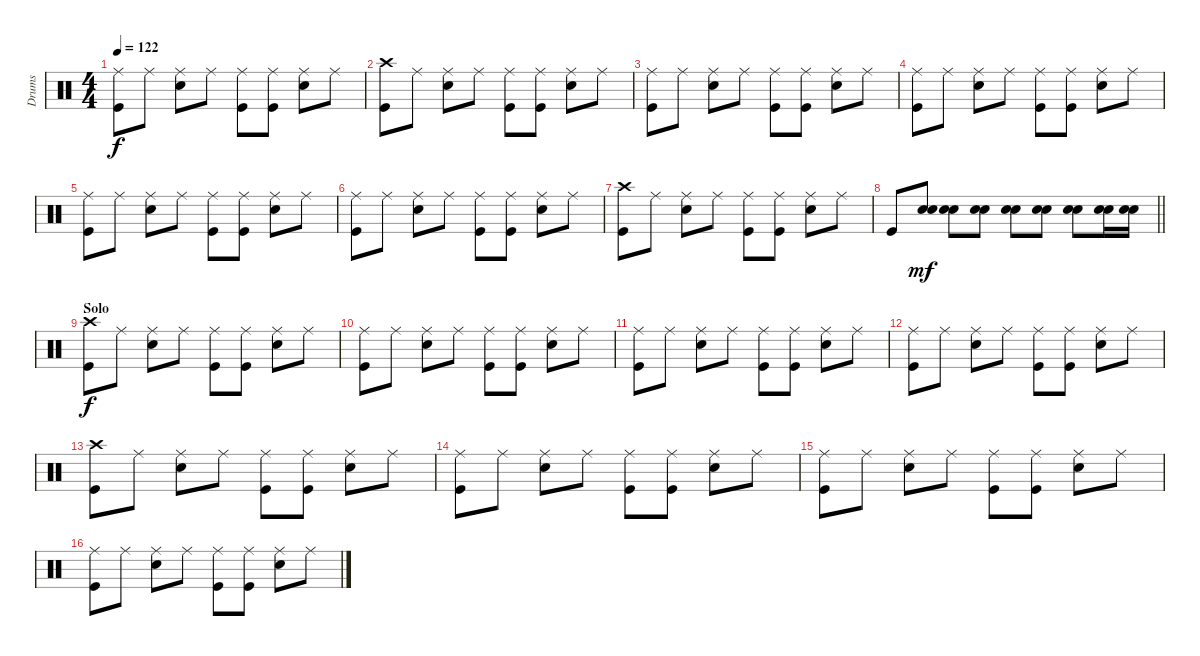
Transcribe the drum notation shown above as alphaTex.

\track ("Drums" "Drums") {instrument percussion}
\staff {score}
\articulation defaults
\ts (4 4)
\tempo 122
\clef neutral
\ks c
("Ride (middle)" "Kick (hit)").8{dy f} "Ride (middle)".8 ("Ride (middle)" "Electric Snare (hit)").8 "Ride (middle)".8 ("Ride (middle)" "Kick (hit)").8 ("Ride (middle)" "Kick (hit)").8 ("Ride (middle)" "Electric Snare (hit)").8 "Ride (middle)".8 |
("Crash high (hit)" "Kick (hit)").8 "Ride (middle)".8 ("Ride (middle)" "Electric Snare (hit)").8 "Ride (middle)".8 ("Ride (middle)" "Kick (hit)").8 ("Ride (middle)" "Kick (hit)").8 ("Ride (middle)" "Electric Snare (hit)").8 "Ride (middle)".8 |
("Ride (middle)" "Kick (hit)").8 "Ride (middle)".8 ("Ride (middle)" "Electric Snare (hit)").8 "Ride (middle)".8 ("Ride (middle)" "Kick (hit)").8 ("Ride (middle)" "Kick (hit)").8 ("Ride (middle)" "Electric Snare (hit)").8 "Ride (middle)".8 |
("Ride (middle)" "Kick (hit)").8 "Ride (middle)".8 ("Ride (middle)" "Electric Snare (hit)").8 "Ride (middle)".8 ("Ride (middle)" "Kick (hit)").8 ("Ride (middle)" "Kick (hit)").8 ("Ride (middle)" "Electric Snare (hit)").8 "Ride (middle)".8 |
("Ride (middle)" "Kick (hit)").8 "Ride (middle)".8 ("Ride (middle)" "Electric Snare (hit)").8 "Ride (middle)".8 ("Ride (middle)" "Kick (hit)").8 ("Ride (middle)" "Kick (hit)").8 ("Ride (middle)" "Electric Snare (hit)").8 "Ride (middle)".8 |
("Ride (middle)" "Kick (hit)").8 "Ride (middle)".8 ("Ride (middle)" "Electric Snare (hit)").8 "Ride (middle)".8 ("Ride (middle)" "Kick (hit)").8 ("Ride (middle)" "Kick (hit)").8 ("Ride (middle)" "Electric Snare (hit)").8 "Ride (middle)".8 |
("Crash high (hit)" "Kick (hit)").8 "Ride (middle)".8 ("Ride (middle)" "Electric Snare (hit)").8 "Ride (middle)".8 ("Ride (middle)" "Kick (hit)").8 ("Ride (middle)" "Kick (hit)").8 ("Ride (middle)" "Electric Snare (hit)").8 "Ride (middle)".8 |
\barLineRight lightlight "Kick (hit)".8
("Electric Snare (hit)" "Snare (hit) 2").8{dy mf} ("Electric Snare (hit)" "Snare (hit) 2").8 ("Electric Snare (hit)" "Snare (hit) 2").8 ("Electric Snare (hit)" "Snare (hit) 2").8 ("Electric Snare (hit)" "Snare (hit) 2").8 ("Electric Snare (hit)" "Snare (hit) 2").8 ("Electric Snare (hit)" "Snare (hit) 2").16 ("Electric Snare (hit)" "Snare (hit) 2").16 |
\section ("" "Solo")
("Crash high (hit)" "Kick (hit)").8{dy f} "Ride (middle)".8 ("Ride (middle)" "Electric Snare (hit)").8 "Ride (middle)".8 ("Ride (middle)" "Kick (hit)").8 ("Ride (middle)" "Kick (hit)").8 ("Ride (middle)" "Electric Snare (hit)").8 "Ride (middle)".8 |
("Ride (middle)" "Kick (hit)").8 "Ride (middle)".8 ("Ride (middle)" "Electric Snare (hit)").8 "Ride (middle)".8 ("Ride (middle)" "Kick (hit)").8 ("Ride (middle)" "Kick (hit)").8 ("Ride (middle)" "Electric Snare (hit)").8 "Ride (middle)".8 |
("Ride (middle)" "Kick (hit)").8 "Ride (middle)".8 ("Ride (middle)" "Electric Snare (hit)").8 "Ride (middle)".8 ("Ride (middle)" "Kick (hit)").8 ("Ride (middle)" "Kick (hit)").8 ("Ride (middle)" "Electric Snare (hit)").8 "Ride (middle)".8 |
("Ride (middle)" "Kick (hit)").8 "Ride (middle)".8 ("Ride (middle)" "Electric Snare (hit)").8 "Ride (middle)".8 ("Ride (middle)" "Kick (hit)").8 ("Ride (middle)" "Kick (hit)").8 ("Ride (middle)" "Electric Snare (hit)").8 "Ride (middle)".8 |
("Crash high (hit)" "Kick (hit)").8 "Ride (middle)".8 ("Ride (middle)" "Electric Snare (hit)").8 "Ride (middle)".8 ("Ride (middle)" "Kick (hit)").8 ("Ride (middle)" "Kick (hit)").8 ("Ride (middle)" "Electric Snare (hit)").8 "Ride (middle)".8 |
("Ride (middle)" "Kick (hit)").8 "Ride (middle)".8 ("Ride (middle)" "Electric Snare (hit)").8 "Ride (middle)".8 ("Ride (middle)" "Kick (hit)").8 ("Ride (middle)" "Kick (hit)").8 ("Ride (middle)" "Electric Snare (hit)").8 "Ride (middle)".8 |
("Ride (middle)" "Kick (hit)").8 "Ride (middle)".8 ("Ride (middle)" "Electric Snare (hit)").8 "Ride (middle)".8 ("Ride (middle)" "Kick (hit)").8 ("Ride (middle)" "Kick (hit)").8 ("Ride (middle)" "Electric Snare (hit)").8 "Ride (middle)".8 |
("Ride (middle)" "Kick (hit)").8 "Ride (middle)".8 ("Ride (middle)" "Electric Snare (hit)").8 "Ride (middle)".8 ("Ride (middle)" "Kick (hit)").8 ("Ride (middle)" "Kick (hit)").8 ("Ride (middle)" "Electric Snare (hit)").8 "Ride (middle)".8
